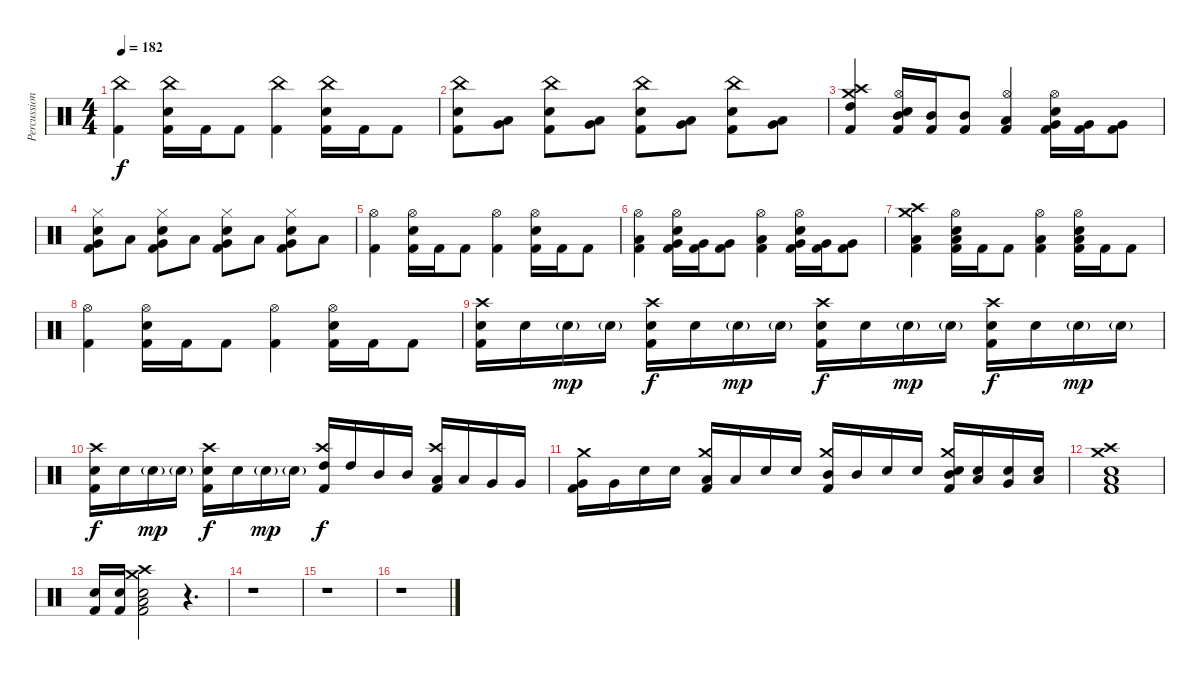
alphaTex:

\track ("Percussion" "Percussion") {instrument percussion}
\staff {score}
\articulation defaults
\ts (4 4)
\tempo 182
\clef neutral
\ks c
("China (hit)" "Kick (hit) 2").4{dy f} ("China (hit)" "Snare (hit) 2" "Kick (hit) 2").16 "Kick (hit) 2".16 "Kick (hit) 2".8 ("China (hit)" "Kick (hit) 2").4 ("China (hit)" "Snare (hit) 2" "Kick (hit) 2").16 "Kick (hit) 2".16 "Kick (hit) 2".8 |
("China (hit)" "Snare (hit) 2" "Kick (hit) 2").8 ("Low Floor Tom (hit)" "Very Low Tom (hit)").8 ("China (hit)" "Snare (hit) 2" "Kick (hit) 2").8 ("Low Floor Tom (hit)" "Very Low Tom (hit)").8 ("China (hit)" "Snare (hit) 2" "Kick (hit) 2").8 ("Low Floor Tom (hit)" "Very Low Tom (hit)").8 ("China (hit)" "Snare (hit) 2" "Kick (hit) 2").8 ("Low Floor Tom (hit)" "Very Low Tom (hit)").8 |
("Crash high (hit)" "Crash medium (hit)" "High Tom (hit)" "Kick (hit) 2").4 ("Hi-Hat (open)" "Mid Tom (hit)" "Snare (hit) 2" "Kick (hit) 2").16 ("Mid Tom (hit)" "Kick (hit) 2").16 ("Mid Tom (hit)" "Kick (hit) 2").8 ("Hi-Hat (open)" "Low Tom (hit)" "Kick (hit) 2").4 ("Hi-Hat (open)" "Very Low Tom (hit)" "Snare (hit) 2" "Kick (hit) 2").16 ("Very Low Tom (hit)" "Kick (hit) 2").16 ("Very Low Tom (hit)" "Kick (hit) 2").8 |
("Hi-Hat (closed)" "Very Low Tom (hit)" "Snare (hit) 2" "Kick (hit) 2").8 "Low Floor Tom (hit)".8 ("Hi-Hat (closed)" "Very Low Tom (hit)" "Snare (hit) 2" "Kick (hit) 2").8 "Low Floor Tom (hit)".8 ("Hi-Hat (closed)" "Very Low Tom (hit)" "Snare (hit) 2" "Kick (hit) 2").8 "Low Floor Tom (hit)".8 ("Hi-Hat (closed)" "Very Low Tom (hit)" "Snare (hit) 2" "Kick (hit) 2").8 "Low Floor Tom (hit)".8 |
("Hi-Hat (open)" "Kick (hit) 2").4 ("Hi-Hat (open)" "Snare (hit) 2" "Kick (hit) 2").16 "Kick (hit) 2".16 "Kick (hit) 2".8 ("Hi-Hat (open)" "Kick (hit) 2").4 ("Hi-Hat (open)" "Snare (hit) 2" "Kick (hit) 2").16 "Kick (hit) 2".16 "Kick (hit) 2".8 |
("Hi-Hat (open)" "Low Floor Tom (hit)" "Kick (hit) 2").4 ("Hi-Hat (open)" "Very Low Tom (hit)" "Snare (hit) 2" "Kick (hit) 2").16 ("Very Low Tom (hit)" "Kick (hit) 2").16 ("Very Low Tom (hit)" "Kick (hit) 2").8 ("Hi-Hat (open)" "Low Floor Tom (hit)" "Kick (hit) 2").4 ("Hi-Hat (open)" "Very Low Tom (hit)" "Snare (hit) 2" "Kick (hit) 2").16 ("Very Low Tom (hit)" "Kick (hit) 2").16 ("Very Low Tom (hit)" "Kick (hit) 2").8 |
("Crash high (hit)" "Crash medium (hit)" "Low Floor Tom (hit)" "Kick (hit) 2").4 ("Hi-Hat (open)" "Low Floor Tom (hit)" "Snare (hit) 2" "Kick (hit) 2").16 "Kick (hit) 2".16 "Kick (hit) 2".8 ("Hi-Hat (open)" "Low Floor Tom (hit)" "Kick (hit) 2").4 ("Hi-Hat (open)" "Low Floor Tom (hit)" "Snare (hit) 2" "Kick (hit) 2").16 "Kick (hit) 2".16 "Kick (hit) 2".8 |
("Hi-Hat (open)" "Kick (hit) 2").4 ("Hi-Hat (open)" "Snare (hit) 2" "Kick (hit) 2").16 "Kick (hit) 2".16 "Kick (hit) 2".8 ("Hi-Hat (open)" "Kick (hit) 2").4 ("Hi-Hat (open)" "Snare (hit) 2" "Kick (hit) 2").16 "Kick (hit) 2".16 "Kick (hit) 2".8 |
("Crash high (hit)" "Snare (hit) 2" "Kick (hit) 2").16 "Snare (hit) 2".16 "Snare (hit) 2"{g}.16{dy mp} "Snare (hit) 2"{g}.16 ("Crash high (hit)" "Snare (hit) 2" "Kick (hit) 2").16{dy f} "Snare (hit) 2".16 "Snare (hit) 2"{g}.16{dy mp} "Snare (hit) 2"{g}.16 ("Crash high (hit)" "Snare (hit) 2" "Kick (hit) 2").16{dy f} "Snare (hit) 2".16 "Snare (hit) 2"{g}.16{dy mp} "Snare (hit) 2"{g}.16 ("Crash high (hit)" "Snare (hit) 2" "Kick (hit) 2").16{dy f} "Snare (hit) 2".16 "Snare (hit) 2"{g}.16{dy mp} "Snare (hit) 2"{g}.16 |
("Crash high (hit)" "Snare (hit) 2" "Kick (hit) 2").16{dy f} "Snare (hit) 2".16 "Snare (hit) 2"{g}.16{dy mp} "Snare (hit) 2"{g}.16 ("Crash high (hit)" "Snare (hit) 2" "Kick (hit) 2").16{dy f} "Snare (hit) 2".16 "Snare (hit) 2"{g}.16{dy mp} "Snare (hit) 2"{g}.16 ("Crash high (hit)" "High Tom (hit)" "Kick (hit) 2").16{dy f} "High Tom (hit)".16 "Mid Tom (hit)".16 "Mid Tom (hit)".16 ("Crash high (hit)" "Low Tom (hit)" "Kick (hit) 2").16 "Low Tom (hit)".16 "Very Low Tom (hit)".16 "Very Low Tom (hit)".16 |
("Crash medium (hit)" "Very Low Tom (hit)" "Kick (hit) 2").16 "Very Low Tom (hit)".16 "Snare (hit) 2".16 "Snare (hit) 2".16 ("Crash medium (hit)" "Low Tom (hit)" "Kick (hit) 2").16 "Low Tom (hit)".16 "Snare (hit) 2".16 "Snare (hit) 2".16 ("Crash medium (hit)" "Mid Tom (hit)" "Kick (hit) 2").16 "Mid Tom (hit)".16 "Snare (hit) 2".16 "Snare (hit) 2".16 ("Crash medium (hit)" "Mid Tom (hit)" "Snare (hit) 2" "Kick (hit) 2").16 ("Low Tom (hit)" "Snare (hit) 2").16 ("Very Low Tom (hit)" "Snare (hit) 2").16 ("Low Floor Tom (hit)" "Snare (hit) 2").16 |
("Crash medium (hit)" "Crash high (hit)" "Snare (hit) 2" "Low Floor Tom (hit)" "Kick (hit) 2").1 |
("Snare (hit) 2" "Kick (hit) 2").16 ("Snare (hit) 2" "Kick (hit) 2").16 ("Crash medium (hit)" "Crash high (hit)" "Snare (hit) 2" "Low Floor Tom (hit)" "Kick (hit) 2").2 r.4{d} |
r.1 |
r.1 |
r.1
